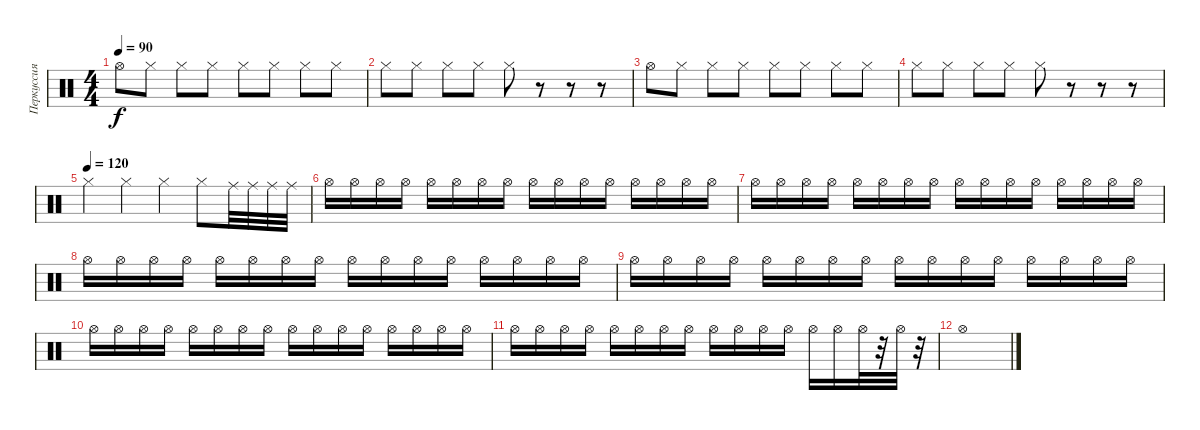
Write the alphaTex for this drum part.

\track ("Перкуссия" "Перкуссия") {instrument percussion}
\staff {score}
\articulation defaults
\ts (4 4)
\tempo 90
\clef neutral
\ks c "Hi-Hat (open)".8{dy f} "Hi-Hat (closed)".8 "Hi-Hat (closed)".8 "Hi-Hat (closed)".8 "Hi-Hat (closed)".8 "Hi-Hat (closed)".8 "Hi-Hat (closed)".8 "Hi-Hat (closed)".8
|
"Hi-Hat (closed)".8 "Hi-Hat (closed)".8 "Hi-Hat (closed)".8 "Hi-Hat (closed)".8 "Hi-Hat (closed)".8 r.8 r.8 r.8 |
"Hi-Hat (open)".8 "Hi-Hat (closed)".8 "Hi-Hat (closed)".8 "Hi-Hat (closed)".8 "Hi-Hat (closed)".8 "Hi-Hat (closed)".8 "Hi-Hat (closed)".8 "Hi-Hat (closed)".8 |
"Hi-Hat (closed)".8 "Hi-Hat (closed)".8 "Hi-Hat (closed)".8 "Hi-Hat (closed)".8 "Hi-Hat (closed)".8 r.8 r.8 r.8 |
\tempo (120)
"Hi-Hat (closed)".4 "Hi-Hat (closed)".4 "Hi-Hat (closed)".4 "Hi-Hat (closed)".8 "Ride (middle)".32 "Ride (middle)".32 "Ride (middle)".32 "Ride (middle)".32 |
"Hi-Hat (open)".16 "Hi-Hat (open)".16 "Hi-Hat (open)".16 "Hi-Hat (open)".16 "Hi-Hat (open)".16 "Hi-Hat (open)".16 "Hi-Hat (open)".16 "Hi-Hat (open)".16 "Hi-Hat (open)".16 "Hi-Hat (open)".16 "Hi-Hat (open)".16 "Hi-Hat (open)".16 "Hi-Hat (open)".16 "Hi-Hat (open)".16 "Hi-Hat (open)".16 "Hi-Hat (open)".16 |
"Hi-Hat (open)".16 "Hi-Hat (open)".16 "Hi-Hat (open)".16 "Hi-Hat (open)".16 "Hi-Hat (open)".16 "Hi-Hat (open)".16 "Hi-Hat (open)".16 "Hi-Hat (open)".16 "Hi-Hat (open)".16 "Hi-Hat (open)".16 "Hi-Hat (open)".16 "Hi-Hat (open)".16 "Hi-Hat (open)".16 "Hi-Hat (open)".16 "Hi-Hat (open)".16 "Hi-Hat (open)".16 |
"Hi-Hat (open)".16 "Hi-Hat (open)".16 "Hi-Hat (open)".16 "Hi-Hat (open)".16 "Hi-Hat (open)".16 "Hi-Hat (open)".16 "Hi-Hat (open)".16 "Hi-Hat (open)".16 "Hi-Hat (open)".16 "Hi-Hat (open)".16 "Hi-Hat (open)".16 "Hi-Hat (open)".16 "Hi-Hat (open)".16 "Hi-Hat (open)".16 "Hi-Hat (open)".16 "Hi-Hat (open)".16 |
"Hi-Hat (open)".16 "Hi-Hat (open)".16 "Hi-Hat (open)".16 "Hi-Hat (open)".16 "Hi-Hat (open)".16 "Hi-Hat (open)".16 "Hi-Hat (open)".16 "Hi-Hat (open)".16 "Hi-Hat (open)".16 "Hi-Hat (open)".16 "Hi-Hat (open)".16 "Hi-Hat (open)".16 "Hi-Hat (open)".16 "Hi-Hat (open)".16 "Hi-Hat (open)".16 "Hi-Hat (open)".16 |
"Hi-Hat (open)".16 "Hi-Hat (open)".16 "Hi-Hat (open)".16 "Hi-Hat (open)".16 "Hi-Hat (open)".16 "Hi-Hat (open)".16 "Hi-Hat (open)".16 "Hi-Hat (open)".16 "Hi-Hat (open)".16 "Hi-Hat (open)".16 "Hi-Hat (open)".16 "Hi-Hat (open)".16 "Hi-Hat (open)".16 "Hi-Hat (open)".16 "Hi-Hat (open)".16 "Hi-Hat (open)".16 |
"Hi-Hat (open)".16 "Hi-Hat (open)".16 "Hi-Hat (open)".16 "Hi-Hat (open)".16 "Hi-Hat (open)".16 "Hi-Hat (open)".16 "Hi-Hat (open)".16 "Hi-Hat (open)".16 "Hi-Hat (open)".16 "Hi-Hat (open)".16 "Hi-Hat (open)".16 "Hi-Hat (open)".16 "Hi-Hat (open)".16 "Hi-Hat (open)".16 "Hi-Hat (open)".32 r.32 "Hi-Hat (open)".32 r.32 |
"Hi-Hat (open)".1
